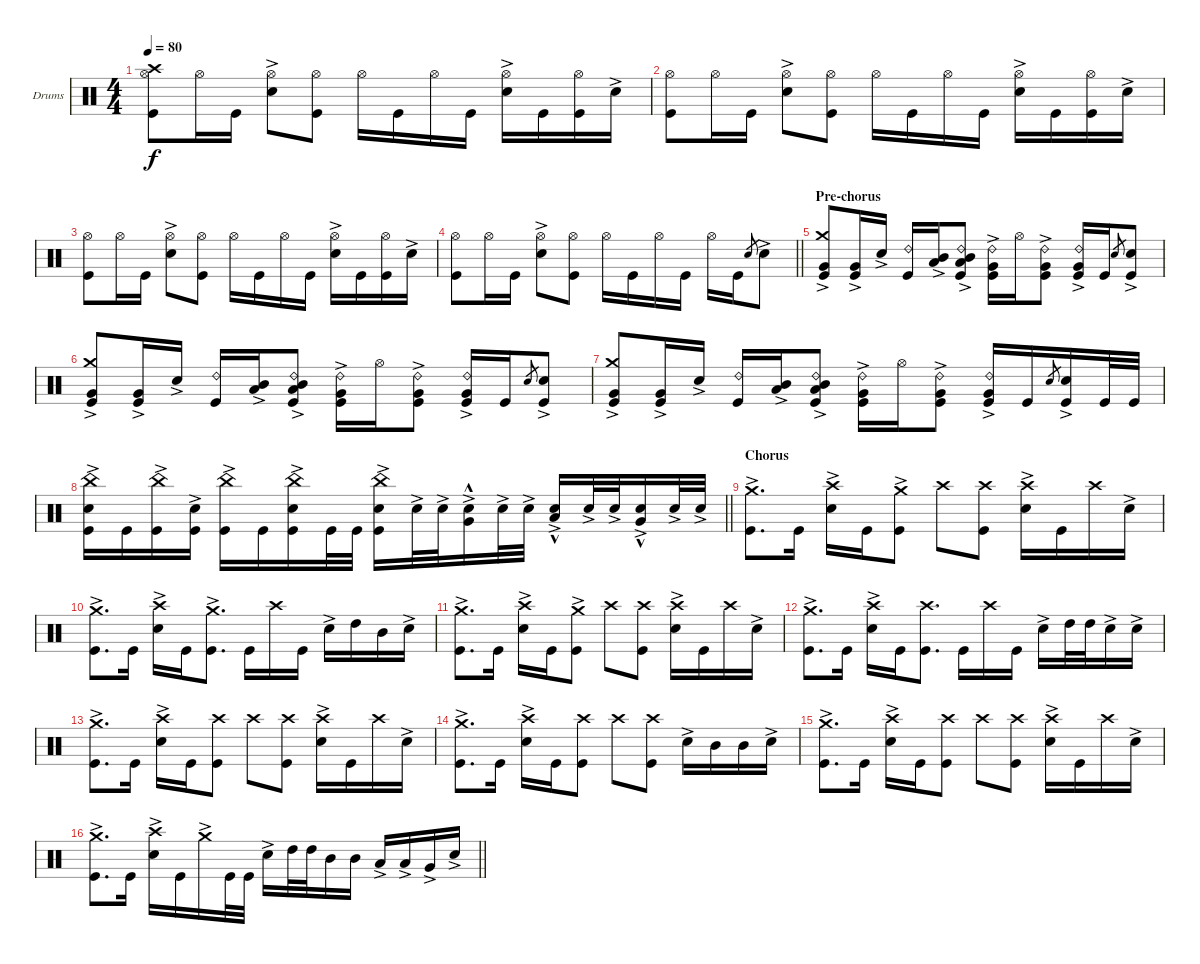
\bracketExtendMode groupsimilarinstruments
\firstSystemTrackNameOrientation horizontal
\otherSystemsTrackNameOrientation horizontal
\track ("Drumkit" "Drums") {instrument percussion}
\staff {score}
\articulation defaults
\ts (4 4)
\tempo 80
\clef neutral
\ks c
("Crash high (hit)" "Kick (hit)" "Hi-Hat (open)").8{dy f} "Hi-Hat (open)".16 "Kick (hit)".16 ("Snare (hit) 2"{ac} "Hi-Hat (open)").8 ("Kick (hit)" "Hi-Hat (open)").8 "Hi-Hat (open)".16 "Kick (hit)".16 "Hi-Hat (open)".16 "Kick (hit)".16 ("Snare (hit) 2"{ac} "Hi-Hat (open)").16 "Kick (hit)".16 ("Kick (hit)" "Hi-Hat (open)").16 "Snare (hit) 2"{ac}.16 |
("Kick (hit)" "Hi-Hat (open)").8 "Hi-Hat (open)".16 "Kick (hit)".16 ("Snare (hit) 2"{ac} "Hi-Hat (open)").8 ("Kick (hit)" "Hi-Hat (open)").8 "Hi-Hat (open)".16 "Kick (hit)".16 "Hi-Hat (open)".16 "Kick (hit)".16 ("Snare (hit) 2"{ac} "Hi-Hat (open)").16 "Kick (hit)".16 ("Kick (hit)" "Hi-Hat (open)").16 "Snare (hit) 2"{ac}.16 |
("Kick (hit)" "Hi-Hat (open)").8 "Hi-Hat (open)".16 "Kick (hit)".16 ("Snare (hit) 2"{ac} "Hi-Hat (open)").8 ("Kick (hit)" "Hi-Hat (open)").8 "Hi-Hat (open)".16 "Kick (hit)".16 "Hi-Hat (open)".16 "Kick (hit)".16 ("Snare (hit) 2"{ac} "Hi-Hat (open)").16 "Kick (hit)".16 ("Kick (hit)" "Hi-Hat (open)").16 "Snare (hit) 2"{ac}.16 |
\barLineRight lightlight
("Kick (hit)" "Hi-Hat (open)").8 "Hi-Hat (open)".16 "Kick (hit)".16 ("Snare (hit) 2"{ac} "Hi-Hat (open)").8 ("Kick (hit)" "Hi-Hat (open)").8 "Hi-Hat (open)".16 "Kick (hit)".16 "Hi-Hat (open)".16 "Kick (hit)".16 "Hi-Hat (open)".16 "Kick (hit)".16 "Snare (hit) 2".8{gr} "Snare (hit) 2"{ac}.8 |
\section ("" "Pre-chorus")
\scale
0.522777 ("Kick (hit)" "Crash medium (hit)"{ac} "Very Low Tom (hit)"{ac}).8 ("Very Low Tom (hit)"{ac} "Kick (hit)").16 "Snare (hit) 2"{ac}.16 ("Ride (bell) 2" "Kick (hit)").16 ("Mid Tom (hit)" "Low Tom (hit)"{ac}).16 ("Mid Tom (hit)" "Low Tom (hit)"{ac} "Ride (bell) 2" "Kick (hit)").8 ("Very Low Tom (hit)"{ac} "Kick (hit)" "Ride (bell) 2").16 "Hi-Hat (open)".16 ("Very Low Tom (hit)"{ac} "Ride (bell) 2" "Kick (hit)").8 ("Very Low Tom (hit)"{ac} "Ride (bell) 2" "Kick (hit)").16 "Kick (hit)".16 "Snare (hit) 2".8{gr} ("Snare (hit) 2"{ac} "Kick (hit)").8 |
\scale
0.477223 ("Kick (hit)" "Crash medium (hit)"{ac} "Very Low Tom (hit)"{ac}).8 ("Very Low Tom (hit)"{ac} "Kick (hit)").16 "Snare (hit) 2"{ac}.16 ("Ride (bell) 2" "Kick (hit)").16 ("Mid Tom (hit)" "Low Tom (hit)"{ac}).16 ("Mid Tom (hit)" "Low Tom (hit)"{ac} "Ride (bell) 2" "Kick (hit)").8 ("Very Low Tom (hit)"{ac} "Kick (hit)" "Ride (bell) 2").16 "Hi-Hat (open)".16 ("Very Low Tom (hit)"{ac} "Ride (bell) 2" "Kick (hit)").8 ("Very Low Tom (hit)"{ac} "Ride (bell) 2" "Kick (hit)").16 "Kick (hit)".16 "Snare (hit) 2".8{gr} ("Snare (hit) 2"{ac} "Kick (hit)").8 |
("Kick (hit)" "Crash medium (hit)"{ac} "Very Low Tom (hit)"{ac}).8 ("Very Low Tom (hit)"{ac} "Kick (hit)").16 "Snare (hit) 2"{ac}.16 ("Ride (bell) 2" "Kick (hit)").16 ("Mid Tom (hit)" "Low Tom (hit)"{ac}).16 ("Mid Tom (hit)" "Low Tom (hit)"{ac} "Ride (bell) 2" "Kick (hit)").8 ("Very Low Tom (hit)"{ac} "Kick (hit)" "Ride (bell) 2").16 "Hi-Hat (open)".16 ("Very Low Tom (hit)"{ac} "Ride (bell) 2" "Kick (hit)").8 ("Very Low Tom (hit)"{ac} "Ride (bell) 2" "Kick (hit)").16 "Kick (hit)".16 "Snare (hit) 2".8{gr} ("Snare (hit) 2"{ac} "Kick (hit)").16 "Kick (hit)".32 "Kick (hit)".32 |
\barLineRight lightlight
("China (hit)"{ac} "Snare (hit) 2"{ac} "Kick (hit)").16 "Kick (hit)".16 ("China (hit)"{ac} "Kick (hit)").16 ("Snare (hit) 2"{ac} "Kick (hit)").16 ("China (hit)"{ac} "Kick (hit)").16 "Kick (hit)".16 ("China (hit)"{ac} "Snare (hit) 2"{ac} "Kick (hit)").16 "Kick (hit)".32 "Kick (hit)".32 ("China (hit)"{ac} "Snare (hit) 2"{ac} "Kick (hit)").16 "Snare (hit) 2"{ac}.32 "Snare (hit) 2"{ac}.32 ("Snare (hit) 2"{ac} "Very Low Tom (hit)"{hac}).16 "Snare (hit) 2"{ac}.32 "Snare (hit) 2"{ac}.32 ("Snare (hit) 2"{ac} "Low Tom (hit)"{hac}).16 "Snare (hit) 2"{ac}.32 "Snare (hit) 2"{ac}.32 ("Snare (hit) 2"{ac} "Very Low Tom (hit)"{hac}).16 "Snare (hit) 2"{ac}.32 "Snare (hit) 2"{ac}.32 |
\section ("" "Chorus")
("Crash medium (hit)"{ac} "Kick (hit)").8{d} "Kick (hit)".16 ("Snare (hit) 2"{ac} "Crash high (hit)").16 "Kick (hit)".16 ("Crash medium (hit)"{ac} "Kick (hit)").8 "Crash high (hit)".8 ("Kick (hit)" "Crash high (hit)").8 ("Snare (hit) 2"{ac} "Crash high (hit)").16 "Kick (hit)".16 "Crash high (hit)".16 "Snare (hit) 2"{ac}.16 |
("Crash medium (hit)"{ac} "Kick (hit)").8{d} "Kick (hit)".16 ("Snare (hit) 2"{ac} "Crash high (hit)").16 "Kick (hit)".16 ("Crash medium (hit)"{ac} "Kick (hit)").8{d} "Kick (hit)".16 "Crash high (hit)".16 "Kick (hit)".16 "Snare (hit) 2"{ac}.16 "High Tom (hit)".16 "Mid Tom (hit)".16 "Snare (hit) 2"{ac}.16 |
("Crash medium (hit)"{ac} "Kick (hit)").8{d} "Kick (hit)".16 ("Snare (hit) 2"{ac} "Crash high (hit)").16 "Kick (hit)".16 ("Crash medium (hit)"{ac} "Kick (hit)").8 "Crash high (hit)".8 ("Kick (hit)" "Crash high (hit)").8 ("Snare (hit) 2"{ac} "Crash high (hit)").16 "Kick (hit)".16 "Crash high (hit)".16 "Snare (hit) 2"{ac}.16 |
("Crash medium (hit)"{ac} "Kick (hit)").8{d} "Kick (hit)".16 ("Snare (hit) 2"{ac} "Crash high (hit)").16 "Kick (hit)".16 ("Kick (hit)" "Crash high (hit)").8{d} "Kick (hit)".16 "Crash high (hit)".16 "Kick (hit)".16 "Snare (hit) 2"{ac}.16 "High Tom (hit)".32 "High Tom (hit)".32 "Snare (hit) 2"{ac}.16 "Snare (hit) 2"{ac}.16 |
("Crash medium (hit)"{ac} "Kick (hit)").8{d} "Kick (hit)".16 ("Snare (hit) 2"{ac} "Crash high (hit)").16 "Kick (hit)".16 ("Kick (hit)" "Crash high (hit)").8 "Crash high (hit)".8 ("Kick (hit)" "Crash high (hit)").8 ("Snare (hit) 2"{ac} "Crash high (hit)").16 "Kick (hit)".16 "Crash high (hit)".16 "Snare (hit) 2"{ac}.16 |
("Crash medium (hit)"{ac} "Kick (hit)").8{d} "Kick (hit)".16 ("Snare (hit) 2"{ac} "Crash high (hit)").16 "Kick (hit)".16 ("Kick (hit)" "Crash high (hit)").8 "Crash high (hit)".8 ("Kick (hit)" "Crash high (hit)").8 "Snare (hit) 2"{ac}.16 "Mid Tom (hit)".16 "Mid Tom (hit)".16 "Snare (hit) 2"{ac}.16 |
("Crash medium (hit)"{ac} "Kick (hit)").8{d} "Kick (hit)".16 ("Snare (hit) 2"{ac} "Crash high (hit)").16 "Kick (hit)".16 ("Kick (hit)" "Crash high (hit)").8 "Crash high (hit)".8 ("Kick (hit)" "Crash high (hit)").8 ("Snare (hit) 2"{ac} "Crash high (hit)").16 "Kick (hit)".16 "Crash high (hit)".16 "Snare (hit) 2"{ac}.16 |
\barLineRight lightlight
("Crash medium (hit)"{ac} "Kick (hit)").8{d} "Kick (hit)".16 ("Snare (hit) 2"{ac} "Crash high (hit)").16 "Kick (hit)".16 "Crash medium (hit)"{ac}.16 "Kick (hit)".32 "Kick (hit)".32 "Snare (hit) 2"{ac}.16 "High Tom (hit)".32 "High Tom (hit)".32 "Mid Tom (hit)".16 "Mid Tom (hit)".16 "Low Tom (hit)"{ac}.16 "Low Tom (hit)"{ac}.16 "Very Low Tom (hit)"{ac}.16 "Snare (hit) 2"{ac}.16
